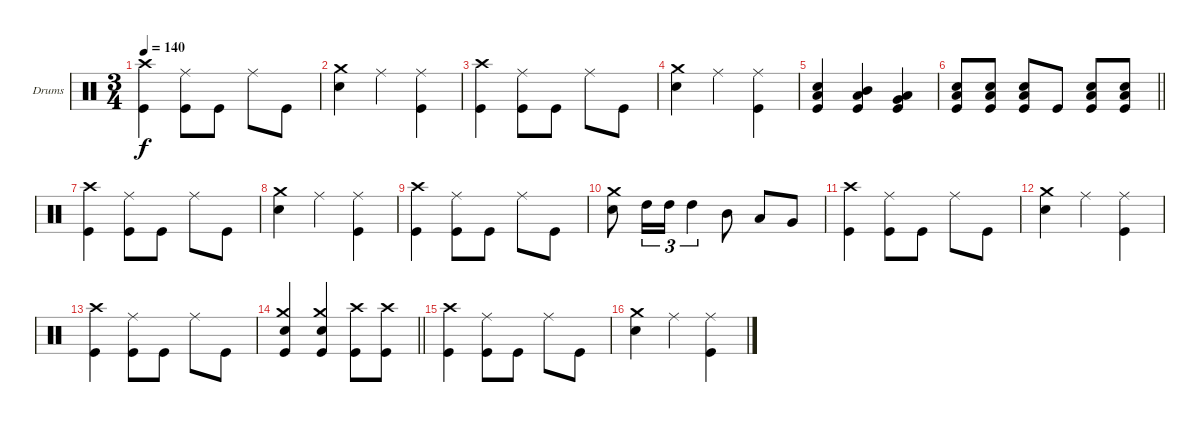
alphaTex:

\bracketExtendMode groupsimilarinstruments
\firstSystemTrackNameOrientation horizontal
\otherSystemsTrackNameOrientation horizontal
\track ("Drumkit" "Drums") {instrument percussion}
\staff {score}
\articulation defaults
\ts (3 4)
\tempo 140
\clef neutral
\ks c
("Crash high (hit)" "Kick (hit)").4{dy f} ("Ride (middle)" "Kick (hit)").8 "Kick (hit)".8 "Ride (middle)".8 "Kick (hit)".8 |
("Crash medium (hit)" "Snare (hit) 2").4 "Ride (middle)".4 ("Ride (middle)" "Kick (hit)").4 |
("Crash high (hit)" "Kick (hit)").4 ("Ride (middle)" "Kick (hit)").8 "Kick (hit)".8 "Ride (middle)".8 "Kick (hit)".8 |
("Crash medium (hit)" "Snare (hit) 2").4 "Ride (middle)".4 ("Ride (middle)" "Kick (hit)").4 |
("Low Tom (hit)" "Snare (hit) 2" "Kick (hit)").4 ("Low Tom (hit)" "Mid Tom (hit)" "Kick (hit)").4 ("Very Low Tom (hit)" "Low Tom (hit)" "Kick (hit)").4 |
\barLineRight lightlight
("Low Tom (hit)" "Snare (hit) 2" "Kick (hit)").8 ("Low Tom (hit)" "Snare (hit) 2" "Kick (hit)").8 ("Low Tom (hit)" "Snare (hit) 2" "Kick (hit)").8 "Kick (hit)".8 ("Low Tom (hit)" "Snare (hit) 2" "Kick (hit)").8 ("Low Tom (hit)" "Snare (hit) 2" "Kick (hit)").8 |
("Crash high (hit)" "Kick (hit)").4 ("Ride (middle)" "Kick (hit)").8 "Kick (hit)".8 "Ride (middle)".8 "Kick (hit)".8 |
("Crash medium (hit)" "Snare (hit) 2").4 "Ride (middle)".4 ("Ride (middle)" "Kick (hit)").4 |
("Crash high (hit)" "Kick (hit)").4 ("Ride (middle)" "Kick (hit)").8 "Kick (hit)".8 "Ride (middle)".8 "Kick (hit)".8 |
("Crash medium (hit)" "Snare (hit) 2").8 "High Tom (hit)".16{tu (3 2)} "High Tom (hit)".16{tu (3 2)} "High Tom (hit)".4{tu (3 2)} "Mid Tom (hit)".8 "Low Tom (hit)".8 "Very Low Tom (hit)".8 |
("Crash high (hit)" "Kick (hit)").4 ("Ride (middle)" "Kick (hit)").8 "Kick (hit)".8 "Ride (middle)".8 "Kick (hit)".8 |
("Crash medium (hit)" "Snare (hit) 2").4 "Ride (middle)".4 ("Ride (middle)" "Kick (hit)").4 |
("Crash high (hit)" "Kick (hit)").4 ("Ride (middle)" "Kick (hit)").8 "Kick (hit)".8 "Ride (middle)".8 "Kick (hit)".8 |
\barLineRight lightlight
("Crash medium (hit)" "Snare (hit) 2" "Kick (hit)").4 ("Crash medium (hit)" "Snare (hit) 2" "Kick (hit)").4 ("Crash high (hit)" "Kick (hit)").8 ("Crash high (hit)" "Kick (hit)").8 |
("Crash high (hit)" "Kick (hit)").4 ("Ride (middle)" "Kick (hit)").8 "Kick (hit)".8 "Ride (middle)".8 "Kick (hit)".8 |
("Crash medium (hit)" "Snare (hit) 2").4 "Ride (middle)".4 ("Ride (middle)" "Kick (hit)").4
